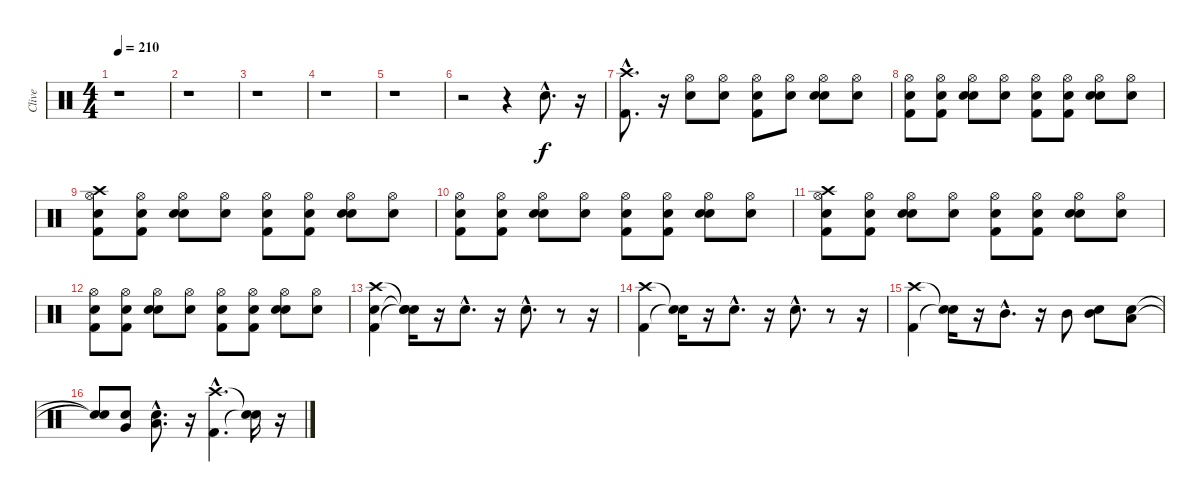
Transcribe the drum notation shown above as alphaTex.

\track ("Clive" "Clive") {instrument percussion}
\staff {score}
\articulation defaults
\ts (4 4)
\tempo 210
\clef neutral
\ks c
r.1{dy f} |
r.1 |
r.1 |
r.1 |
r.1 |
r.2 r.4 "Snare (hit) 2"{hac}.8{d} r.16 |
("Kick (hit) 2"{hac} "Crash high (hit)"{hac}).8{d} r.16 ("Snare (hit) 2" "Hi-Hat (open)").8 ("Snare (hit)" "Hi-Hat (open)").8 ("Snare (hit)" "Kick (hit) 2" "Hi-Hat (open)").8 ("Snare (hit)" "Hi-Hat (open)").8 ("Snare (hit)" "Snare (hit) 2" "Hi-Hat (open)").8 ("Snare (hit)" "Hi-Hat (open)").8 |
("Snare (hit)" "Kick (hit) 2" "Hi-Hat (open)").8 ("Snare (hit)" "Kick (hit) 2" "Hi-Hat (open)").8 ("Snare (hit)" "Snare (hit) 2" "Hi-Hat (open)").8 ("Snare (hit)" "Hi-Hat (open)").8 ("Snare (hit)" "Kick (hit) 2" "Hi-Hat (open)").8 ("Snare (hit)" "Kick (hit) 2" "Hi-Hat (open)").8 ("Snare (hit)" "Snare (hit) 2" "Hi-Hat (open)").8 ("Snare (hit)" "Hi-Hat (open)").8 |
("Snare (hit)" "Kick (hit) 2" "Hi-Hat (open)" "Crash high (hit)").8 ("Snare (hit)" "Kick (hit) 2" "Hi-Hat (open)").8 ("Snare (hit)" "Snare (hit) 2" "Hi-Hat (open)").8 ("Snare (hit)" "Hi-Hat (open)").8 ("Snare (hit)" "Kick (hit) 2" "Hi-Hat (open)").8 ("Snare (hit)" "Kick (hit) 2" "Hi-Hat (open)").8 ("Snare (hit)" "Snare (hit) 2" "Hi-Hat (open)").8 ("Snare (hit)" "Hi-Hat (open)").8 |
("Snare (hit)" "Kick (hit) 2" "Hi-Hat (open)").8 ("Snare (hit)" "Kick (hit) 2" "Hi-Hat (open)").8 ("Snare (hit)" "Snare (hit) 2" "Hi-Hat (open)").8 ("Snare (hit)" "Hi-Hat (open)").8 ("Snare (hit)" "Kick (hit) 2" "Hi-Hat (open)").8 ("Snare (hit)" "Kick (hit) 2" "Hi-Hat (open)").8 ("Snare (hit)" "Snare (hit) 2" "Hi-Hat (open)").8 ("Snare (hit)" "Hi-Hat (open)").8 |
("Snare (hit)" "Kick (hit) 2" "Hi-Hat (open)" "Crash high (hit)").8 ("Snare (hit)" "Kick (hit) 2" "Hi-Hat (open)").8 ("Snare (hit)" "Snare (hit) 2" "Hi-Hat (open)").8 ("Snare (hit)" "Hi-Hat (open)").8 ("Snare (hit)" "Kick (hit) 2" "Hi-Hat (open)").8 ("Snare (hit)" "Kick (hit) 2" "Hi-Hat (open)").8 ("Snare (hit)" "Snare (hit) 2" "Hi-Hat (open)").8 ("Snare (hit)" "Hi-Hat (open)").8 |
("Snare (hit)" "Kick (hit) 2" "Hi-Hat (open)").8 ("Snare (hit)" "Kick (hit) 2" "Hi-Hat (open)").8 ("Snare (hit)" "Snare (hit) 2" "Hi-Hat (open)").8 ("Snare (hit)" "Hi-Hat (open)").8 ("Snare (hit)" "Kick (hit) 2" "Hi-Hat (open)").8 ("Snare (hit)" "Kick (hit) 2" "Hi-Hat (open)").8 ("Snare (hit)" "Snare (hit) 2" "Hi-Hat (open)").8 ("Snare (hit)" "Hi-Hat (open)").8 |
("Snare (hit)" "Kick (hit) 2" "Crash high (hit)").4 ("Snare (hit)"{t} "Snare (hit)"{t} "Snare (hit)"{t}).16 r.16 "Snare (hit) 2"{hac}.8{d} r.16 "Snare (hit) 2"{hac}.8{d} r.8 r.16 |
("Kick (hit) 2" "Crash high (hit)").4 ("Snare (hit)"{t} "Snare (hit)"{t}).16 r.16 "Snare (hit) 2"{hac}.8{d} r.16 "Snare (hit) 2"{hac}.8{d} r.8 r.16 |
("Kick (hit) 2" "Crash high (hit)").4 ("Snare (hit)"{t} "Snare (hit)"{t}).16 r.16 "Mid Tom (hit)"{hac}.8{d} r.16 "Mid Tom (hit)".8 ("Snare (hit)" "Mid Tom (hit)").8 ("Snare (hit)" "Low Tom (hit)").8 |
("Snare (hit)"{t} "Snare (hit)"{t}).8 ("Snare (hit)" "Very Low Tom (hit)").8 ("Snare (hit)"{hac} "Low Floor Tom (hit)"{hac}).8{d} r.16 ("Kick (hit) 2"{hac} "Crash high (hit)"{hac}).4{d} ("Snare (hit)"{t} "Snare (hit)"{t}).16 r.16
